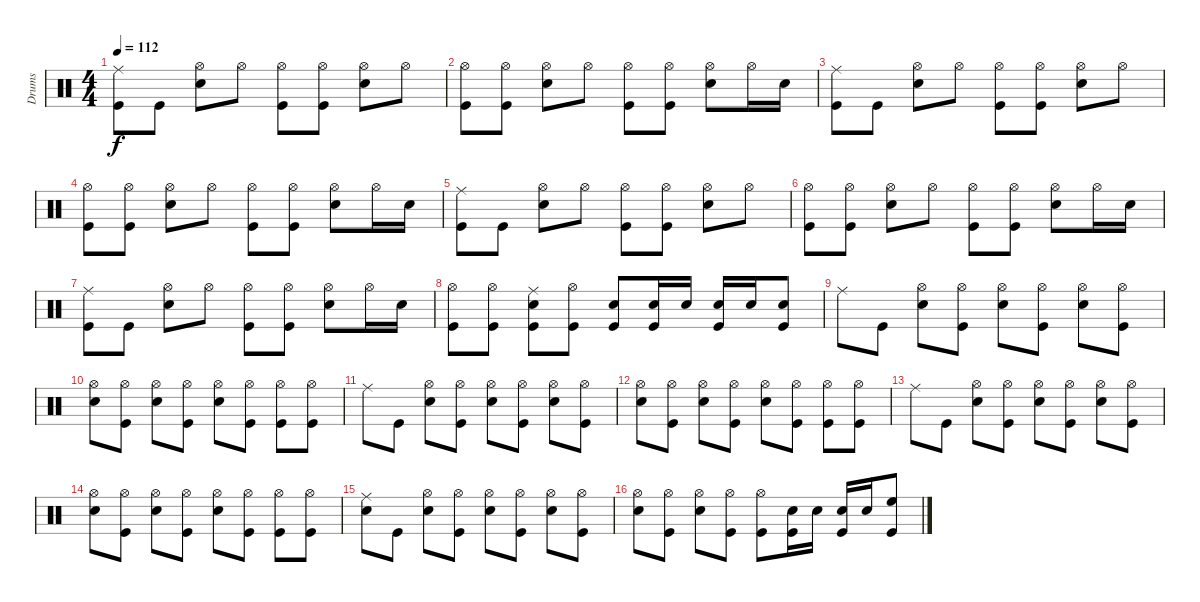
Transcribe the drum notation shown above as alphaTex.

\track ("Drums" "Drums") {instrument percussion}
\staff {score}
\articulation defaults
\ts (4 4)
\tempo 112
\clef neutral
\ks c
("Ride (middle)" "Kick (hit)").8{dy f} "Kick (hit)".8 ("Hi-Hat (open)" "Snare (hit) 2").8 "Hi-Hat (open)".8 ("Hi-Hat (open)" "Kick (hit)").8 ("Hi-Hat (open)" "Kick (hit)").8 ("Hi-Hat (open)" "Snare (hit) 2").8 "Hi-Hat (open)".8 |
("Hi-Hat (open)" "Kick (hit)").8 ("Hi-Hat (open)" "Kick (hit)").8 ("Hi-Hat (open)" "Snare (hit) 2").8 "Hi-Hat (open)".8 ("Hi-Hat (open)" "Kick (hit)").8 ("Hi-Hat (open)" "Kick (hit)").8 ("Hi-Hat (open)" "Snare (hit) 2").8 "Hi-Hat (open)".16 "Snare (hit) 2".16 |
("Ride (middle)" "Kick (hit)").8 "Kick (hit)".8 ("Hi-Hat (open)" "Snare (hit) 2").8 "Hi-Hat (open)".8 ("Hi-Hat (open)" "Kick (hit)").8 ("Hi-Hat (open)" "Kick (hit)").8 ("Hi-Hat (open)" "Snare (hit) 2").8 "Hi-Hat (open)".8 |
("Hi-Hat (open)" "Kick (hit)").8 ("Hi-Hat (open)" "Kick (hit)").8 ("Hi-Hat (open)" "Snare (hit) 2").8 "Hi-Hat (open)".8 ("Hi-Hat (open)" "Kick (hit)").8 ("Hi-Hat (open)" "Kick (hit)").8 ("Hi-Hat (open)" "Snare (hit) 2").8 "Hi-Hat (open)".16 "Snare (hit) 2".16 |
("Ride (middle)" "Kick (hit)").8 "Kick (hit)".8 ("Hi-Hat (open)" "Snare (hit) 2").8 "Hi-Hat (open)".8 ("Hi-Hat (open)" "Kick (hit)").8 ("Hi-Hat (open)" "Kick (hit)").8 ("Hi-Hat (open)" "Snare (hit) 2").8 "Hi-Hat (open)".8 |
("Hi-Hat (open)" "Kick (hit)").8 ("Hi-Hat (open)" "Kick (hit)").8 ("Hi-Hat (open)" "Snare (hit) 2").8 "Hi-Hat (open)".8 ("Hi-Hat (open)" "Kick (hit)").8 ("Hi-Hat (open)" "Kick (hit)").8 ("Hi-Hat (open)" "Snare (hit) 2").8 "Hi-Hat (open)".16 "Snare (hit) 2".16 |
("Ride (middle)" "Kick (hit)").8 "Kick (hit)".8 ("Hi-Hat (open)" "Snare (hit) 2").8 "Hi-Hat (open)".8 ("Hi-Hat (open)" "Kick (hit)").8 ("Hi-Hat (open)" "Kick (hit)").8 ("Hi-Hat (open)" "Snare (hit) 2").8 "Hi-Hat (open)".16 "Snare (hit) 2".16 |
("Hi-Hat (open)" "Kick (hit)").8 ("Hi-Hat (open)" "Kick (hit)").8 ("Ride (middle)" "Snare (hit) 2" "Kick (hit)").8 ("Hi-Hat (open)" "Kick (hit)").8 ("Snare (hit) 2" "Kick (hit)").8 ("Snare (hit) 2" "Kick (hit)").16 "Snare (hit) 2".16 ("Snare (hit) 2" "Kick (hit)").16 "Snare (hit) 2".16 ("Snare (hit) 2" "Kick (hit)").8 |
"Ride (middle)".8 "Kick (hit)".8 ("Hi-Hat (open)" "Snare (hit) 2").8 ("Hi-Hat (open)" "Kick (hit)").8 ("Hi-Hat (open)" "Snare (hit) 2").8 ("Hi-Hat (open)" "Kick (hit)").8 ("Hi-Hat (open)" "Snare (hit) 2").8 ("Hi-Hat (open)" "Kick (hit)").8 |
("Hi-Hat (open)" "Snare (hit) 2").8 ("Hi-Hat (open)" "Kick (hit)").8 ("Hi-Hat (open)" "Snare (hit) 2").8 ("Hi-Hat (open)" "Kick (hit)").8 ("Hi-Hat (open)" "Snare (hit) 2").8 ("Hi-Hat (open)" "Kick (hit)").8 ("Hi-Hat (open)" "Kick (hit)").8 ("Hi-Hat (open)" "Kick (hit)").8 |
"Ride (middle)".8 "Kick (hit)".8 ("Hi-Hat (open)" "Snare (hit) 2").8 ("Hi-Hat (open)" "Kick (hit)").8 ("Hi-Hat (open)" "Snare (hit) 2").8 ("Hi-Hat (open)" "Kick (hit)").8 ("Hi-Hat (open)" "Snare (hit) 2").8 ("Hi-Hat (open)" "Kick (hit)").8 |
("Hi-Hat (open)" "Snare (hit) 2").8 ("Hi-Hat (open)" "Kick (hit)").8 ("Hi-Hat (open)" "Snare (hit) 2").8 ("Hi-Hat (open)" "Kick (hit)").8 ("Hi-Hat (open)" "Snare (hit) 2").8 ("Hi-Hat (open)" "Kick (hit)").8 ("Hi-Hat (open)" "Kick (hit)").8 ("Hi-Hat (open)" "Kick (hit)").8 |
"Ride (middle)".8 "Kick (hit)".8 ("Hi-Hat (open)" "Snare (hit) 2").8 ("Hi-Hat (open)" "Kick (hit)").8 ("Hi-Hat (open)" "Snare (hit) 2").8 ("Hi-Hat (open)" "Kick (hit)").8 ("Hi-Hat (open)" "Snare (hit) 2").8 ("Hi-Hat (open)" "Kick (hit)").8 |
("Hi-Hat (open)" "Snare (hit) 2").8 ("Hi-Hat (open)" "Kick (hit)").8 ("Hi-Hat (open)" "Snare (hit) 2").8 ("Hi-Hat (open)" "Kick (hit)").8 ("Hi-Hat (open)" "Snare (hit) 2").8 ("Hi-Hat (open)" "Kick (hit)").8 ("Hi-Hat (open)" "Kick (hit)").8 ("Hi-Hat (open)" "Kick (hit)").8 |
("Ride (middle)" "Snare (hit) 2").8 "Kick (hit)".8 ("Hi-Hat (open)" "Snare (hit) 2").8 ("Hi-Hat (open)" "Kick (hit)").8 ("Hi-Hat (open)" "Snare (hit) 2").8 ("Hi-Hat (open)" "Kick (hit)").8 ("Hi-Hat (open)" "Snare (hit) 2").8 ("Hi-Hat (open)" "Kick (hit)").8 |
("Hi-Hat (open)" "Snare (hit) 2").8 ("Hi-Hat (open)" "Kick (hit)").8 ("Hi-Hat (open)" "Snare (hit) 2").8 ("Hi-Hat (open)" "Kick (hit)").8 ("Hi-Hat (open)" "Kick (hit)").8 ("Snare (hit) 2" "Kick (hit)").16 "Snare (hit) 2".16 ("Snare (hit) 2" "Kick (hit)").16 "Snare (hit) 2".16 ("High Floor Tom (hit)" "Kick (hit)").8
